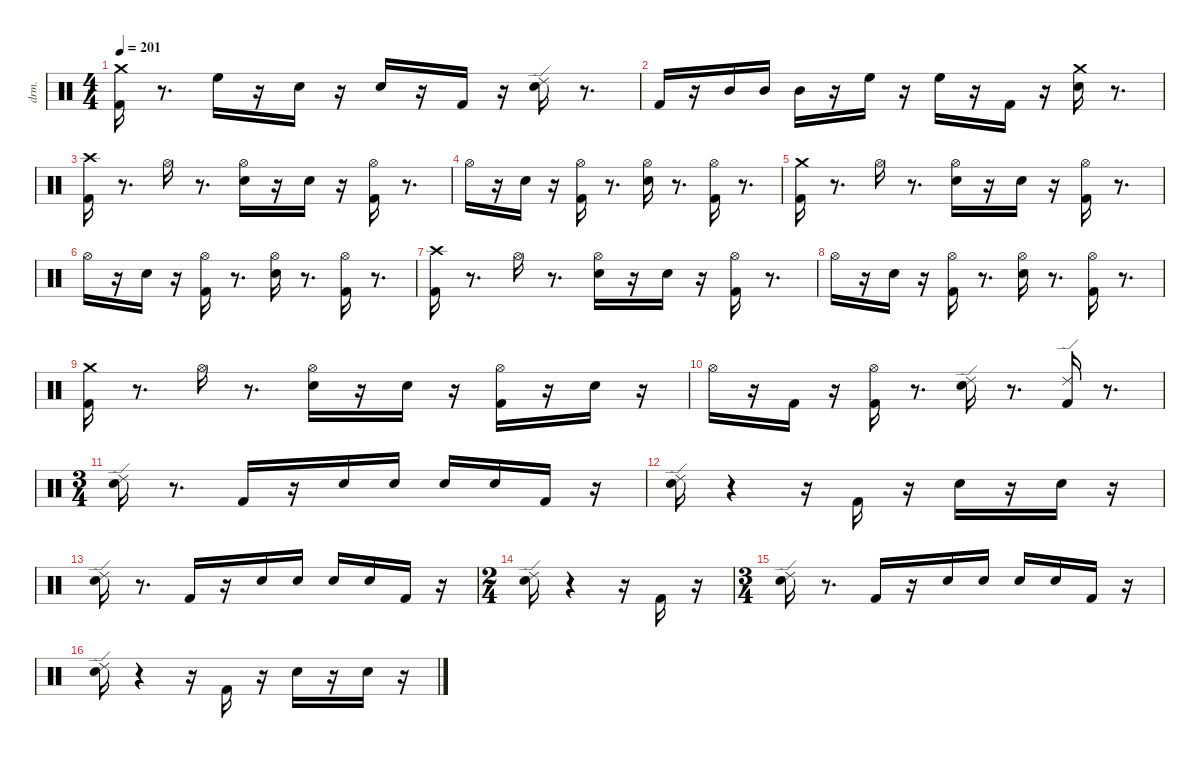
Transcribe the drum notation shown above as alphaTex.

\defaultSystemsLayout 4
\hideDynamics
\bracketExtendMode nobrackets
\otherSystemsTrackNameOrientation horizontal
\track ("Drums" "drm.") {instrument percussion}
\staff {score}
\articulation defaults
\ts (4 4)
\tempo 201
\clef neutral
\ks aminor
("Kick (hit) 2" "Crash medium (hit)").16{dy ff beam Down} r.8{d beam Down} "High Floor Tom (hit)".16{beam Down} r.16{beam Down} "Snare (hit) 2".16{beam Down} r.16{beam Down} "Snare (hit) 2".16{dy mf beam Up} r.16{beam Up} "Kick (hit) 2".16{dy ff beam Up} r.16{beam Up} ("Snare (hit) 2" "Ride (edge) 2").16{dy f beam Down} r.8{d beam Down} |
"Kick (hit) 2".16{dy ff beam Up} r.16{beam Up} "Mid Tom (hit)".16{beam Up} "Mid Tom (hit)".16{dy mp beam Up} "Mid Tom (hit)".16{dy f beam Down} r.16{beam Down} "High Floor Tom (hit)".16{dy ff beam Down} r.16{beam Down} "High Floor Tom (hit)".16{beam Down} r.16{beam Down} "Kick (hit) 2".16{beam Down} r.16{beam Down} ("Snare (hit) 2" "Crash medium (hit)").16{dy fff beam Down} r.8{d beam Down} |
("Kick (hit) 2" "Crash high (hit)"{acc #}).16{dy ff beam Down} r.8{d beam Down} "Hi-Hat (open)"{acc #}.16{dy f beam Down} r.8{d beam Down} ("Snare (hit) 2" "Hi-Hat (open)"{acc #}).16{dy ff beam Down} r.16{beam Down} "Snare (hit) 2".16{dy mf beam Down} r.16{beam Down} ("Kick (hit) 2" "Hi-Hat (open)"{acc #}).16{dy ff beam Down} r.8{d beam Down} |
"Hi-Hat (open)"{acc #}.16{dy fff beam Down} r.16{beam Down} "Snare (hit) 2".16{dy ppp beam Down} r.16{beam Down} ("Kick (hit) 2" "Hi-Hat (open)"{acc #}).16{dy ff beam Down} r.8{d beam Down} ("Snare (hit) 2" "Hi-Hat (open)"{acc #}).16{beam Down} r.8{d beam Down} ("Kick (hit) 2" "Hi-Hat (open)"{acc #}).16{beam Down} r.8{d beam Down} |
("Kick (hit) 2" "Crash medium (hit)").16{beam Down} r.8{d beam Down} "Hi-Hat (open)"{acc #}.16{dy f beam Down} r.8{d beam Down} ("Snare (hit) 2" "Hi-Hat (open)"{acc #}).16{dy ff beam Down} r.16{beam Down} "Snare (hit) 2".16{dy mf beam Down} r.16{beam Down} ("Kick (hit) 2" "Hi-Hat (open)"{acc #}).16{dy ff beam Down} r.8{d beam Down} |
"Hi-Hat (open)"{acc #}.16{dy fff beam Down} r.16{beam Down} "Snare (hit) 2".16{dy ppp beam Down} r.16{beam Down} ("Kick (hit) 2" "Hi-Hat (open)"{acc #}).16{dy ff beam Down} r.8{d beam Down} ("Snare (hit) 2" "Hi-Hat (open)"{acc #}).16{beam Down} r.8{d beam Down} ("Kick (hit) 2" "Hi-Hat (open)"{acc #}).16{beam Down} r.8{d beam Down} |
("Kick (hit) 2" "Crash high (hit)"{acc #}).16{beam Down} r.8{d beam Down} "Hi-Hat (open)"{acc #}.16{dy f beam Down} r.8{d beam Down} ("Snare (hit) 2" "Hi-Hat (open)"{acc #}).16{dy ff beam Down} r.16{beam Down} "Snare (hit) 2".16{dy mf beam Down} r.16{beam Down} ("Kick (hit) 2" "Hi-Hat (open)"{acc #}).16{dy ff beam Down} r.8{d beam Down} |
"Hi-Hat (open)"{acc #}.16{dy fff beam Down} r.16{beam Down} "Snare (hit) 2".16{dy ppp beam Down} r.16{beam Down} ("Kick (hit) 2" "Hi-Hat (open)"{acc #}).16{dy ff beam Down} r.8{d beam Down} ("Snare (hit) 2" "Hi-Hat (open)"{acc #}).16{beam Down} r.8{d beam Down} ("Kick (hit) 2" "Hi-Hat (open)"{acc #}).16{beam Down} r.8{d beam Down} |
("Kick (hit) 2" "Crash medium (hit)").16{beam Down} r.8{d beam Down} "Hi-Hat (open)"{acc #}.16{dy f beam Down} r.8{d beam Down} ("Snare (hit) 2" "Hi-Hat (open)"{acc #}).16{dy ff beam Down} r.16{beam Down} "Snare (hit) 2".16{dy mf beam Down} r.16{beam Down} ("Kick (hit) 2" "Hi-Hat (open)"{acc #}).16{dy ff beam Down} r.16{beam Down} "Snare (hit) 2".16{beam Down} r.16{beam Down} |
"Hi-Hat (open)"{acc #}.16{dy fff beam Down} r.16{beam Down} "Kick (hit) 2".16{dy mf beam Down} r.16{beam Down} ("Kick (hit) 2" "Hi-Hat (open)"{acc #}).16{dy ff beam Down} r.8{d beam Down} ("Snare (hit) 2" "Ride (edge) 2").16{beam Down} r.8{d beam Down} ("Kick (hit) 2" "Ride (edge) 2").16{dy mf beam Up} r.8{d beam Up} |
\ts (3 4)
\beaming (8 2 2 2)
("Snare (hit) 2" "Ride (edge) 2").16{dy ff beam Down} r.8{d beam Down} "Kick (hit) 2".16{beam Up} r.16{beam Up} "Snare (hit) 2".16{dy ppp beam Up} "Snare (hit) 2".16{beam Up} "Snare (hit) 2".16{dy mf beam Up} "Snare (hit) 2".16{dy ppp beam Up} "Kick (hit) 2".16{dy ff beam Up} r.16{beam Up} |
("Snare (hit) 2" "Ride (edge) 2").16{beam Down} r.4{beam Down} r.16{beam Down} "Kick (hit) 2".16{beam Up} r.16{beam Up} "Snare (hit) 2".16{beam Down} r.16{beam Down} "Snare (hit) 2".16{dy pp beam Down} r.16{beam Down} |
("Snare (hit) 2" "Ride (edge) 2").16{dy ff beam Down} r.8{d beam Down} "Kick (hit) 2".16{beam Up} r.16{beam Up} "Snare (hit) 2".16{dy ppp beam Up} "Snare (hit) 2".16{beam Up} "Snare (hit) 2".16{dy mf beam Up} "Snare (hit) 2".16{dy ppp beam Up} "Kick (hit) 2".16{dy ff beam Up} r.16{beam Up} |
\ts (2 4)
\beaming (8 2 2)
("Snare (hit) 2" "Ride (edge) 2").16{beam Down} r.4{beam Down} r.16{beam Down} "Kick (hit) 2".16{dy f beam Up} r.16{beam Up} |
\ts (3 4)
\beaming (8 2 2 2)
("Snare (hit) 2" "Ride (edge) 2").16{dy ff beam Down} r.8{d beam Down} "Kick (hit) 2".16{beam Up} r.16{beam Up} "Snare (hit) 2".16{dy ppp beam Up} "Snare (hit) 2".16{beam Up} "Snare (hit) 2".16{dy mf beam Up} "Snare (hit) 2".16{dy ppp beam Up} "Kick (hit) 2".16{dy ff beam Up} r.16{beam Up} |
("Snare (hit) 2" "Ride (edge) 2").16{beam Down} r.4{beam Down} r.16{beam Down} "Kick (hit) 2".16{beam Up} r.16{beam Up} "Snare (hit) 2".16{beam Down} r.16{beam Down} "Snare (hit) 2".16{dy pp beam Down} r.16{beam Down}
